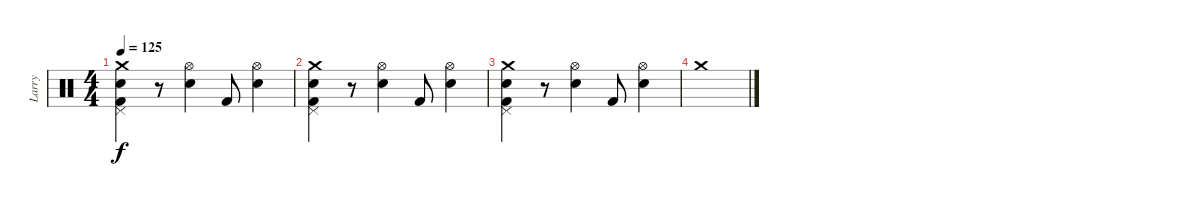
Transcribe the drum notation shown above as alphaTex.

\track ("Larry" "Larry") {instrument percussion}
\staff {score}
\articulation defaults
\ts (4 4)
\tempo 125
\clef neutral
\ks c
("Crash medium (hit)" "Electric Snare (hit)" "Kick (hit) 2" "Pedal Hi-Hat (hit)").4{dy f} r.8 ("Hi-Hat (open)" "Electric Snare (hit)").4 "Kick (hit) 2".8 ("Hi-Hat (open)" "Electric Snare (hit)").4 |
("Crash medium (hit)" "Electric Snare (hit)" "Kick (hit) 2" "Pedal Hi-Hat (hit)").4 r.8 ("Hi-Hat (open)" "Electric Snare (hit)").4 "Kick (hit) 2".8 ("Hi-Hat (open)" "Electric Snare (hit)").4 |
("Crash medium (hit)" "Electric Snare (hit)" "Kick (hit) 2" "Pedal Hi-Hat (hit)").4 r.8 ("Hi-Hat (open)" "Electric Snare (hit)").4 "Kick (hit) 2".8 ("Hi-Hat (open)" "Electric Snare (hit)").4 |
"Crash medium (hit)".1
